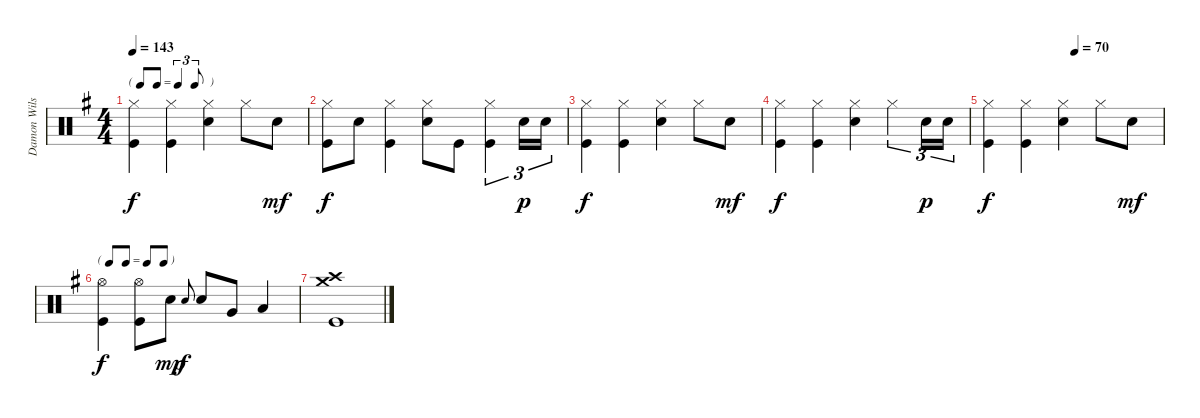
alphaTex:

\track ("Damon Wilson" "Damon Wils") {instrument percussion}
\staff {score}
\articulation defaults
\ts (4 4)
\tf triplet8th
\tempo 143
\clef neutral
\ks g
("Hi-Hat (closed)" "Kick (hit)").4{dy f} ("Hi-Hat (closed)" "Kick (hit)").4 ("Hi-Hat (closed)" "Electric Snare (hit)").4 "Hi-Hat (closed)".8 "Electric Snare (hit)".8{dy mf} |
("Hi-Hat (closed)" "Kick (hit)").8{dy f} "Electric Snare (hit)".8 ("Hi-Hat (closed)" "Kick (hit)").4 ("Hi-Hat (closed)" "Electric Snare (hit)").8 "Kick (hit)".8 ("Hi-Hat (closed)" "Kick (hit)").4{tu (3 2)} "Electric Snare (hit)".16{tu (3 2) dy p} "Electric Snare (hit)".16{tu (3 2)} |
("Hi-Hat (closed)" "Kick (hit)").4{dy f} ("Hi-Hat (closed)" "Kick (hit)").4 ("Hi-Hat (closed)" "Electric Snare (hit)").4 "Hi-Hat (closed)".8 "Electric Snare (hit)".8{dy mf} |
("Hi-Hat (closed)" "Kick (hit)").4{dy f} ("Hi-Hat (closed)" "Kick (hit)").4 ("Hi-Hat (closed)" "Electric Snare (hit)").4 "Hi-Hat (closed)".4{tu (3 2)} "Electric Snare (hit)".16{tu (3 2) dy p} "Electric Snare (hit)".16{tu (3 2)} |
\tempo (70 0.5)
("Hi-Hat (closed)" "Kick (hit)").4{dy f} ("Hi-Hat (closed)" "Kick (hit)").4 ("Hi-Hat (closed)" "Electric Snare (hit)").4 "Hi-Hat (closed)".8 "Electric Snare (hit)".8{dy mf} |
\tf none
("Hi-Hat (open)" "Kick (hit)").4{dy f} ("Hi-Hat (open)" "Kick (hit)").8 "Electric Snare (hit)".8{dy mp} "Electric Snare (hit)".8{gr onbeat dy f} "Electric Snare (hit)".8 "Very Low Tom (hit)".8 "Low Floor Tom (hit)".4 |
("Crash medium (hit)" "Crash high (hit)" "Kick (hit)").1
